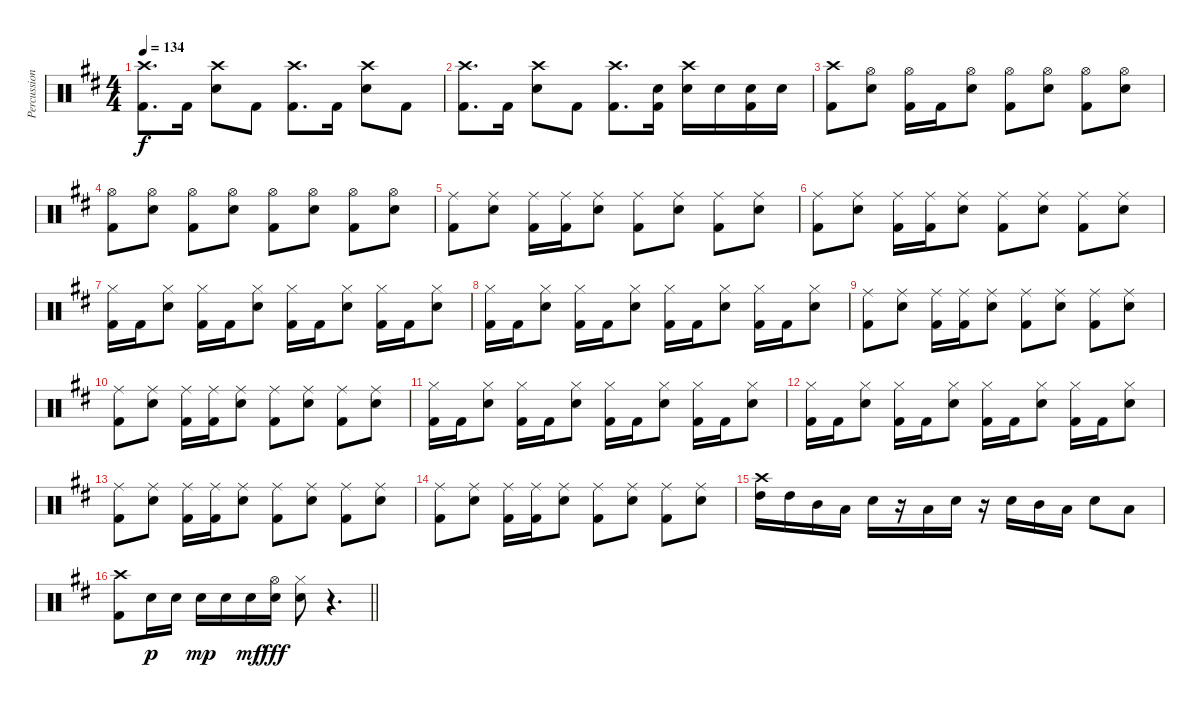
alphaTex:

\track ("Percussion" "Percussion") {instrument percussion}
\staff {score}
\articulation defaults
\ts (4 4)
\tempo 134
\clef neutral
\ks bminor
("Crash high (hit)" "Kick (hit) 2").8{d dy f} "Kick (hit) 2".16 ("Crash high (hit)" "Snare (hit) 2").8 "Kick (hit) 2".8 ("Crash high (hit)" "Kick (hit) 2").8{d} "Kick (hit) 2".16 ("Crash high (hit)" "Snare (hit) 2").8 "Kick (hit) 2".8 |
("Crash high (hit)" "Kick (hit) 2").8{d} "Kick (hit) 2".16 ("Crash high (hit)" "Snare (hit) 2").8 "Kick (hit) 2".8 ("Crash high (hit)" "Kick (hit) 2").8{d} ("Snare (hit) 2" "Kick (hit) 2").16 ("Crash high (hit)" "Snare (hit) 2").16 "Snare (hit) 2".16 ("Snare (hit) 2" "Kick (hit) 2").16 "Snare (hit) 2".16 |
("Crash high (hit)" "Kick (hit) 2").8 ("Hi-Hat (open)" "Snare (hit) 2").8 ("Hi-Hat (open)" "Kick (hit) 2").16 "Kick (hit) 2".16 ("Hi-Hat (open)" "Snare (hit) 2").8 ("Hi-Hat (open)" "Kick (hit) 2").8 ("Hi-Hat (open)" "Snare (hit) 2").8 ("Hi-Hat (open)" "Kick (hit) 2").8 ("Hi-Hat (open)" "Snare (hit) 2").8 |
("Hi-Hat (open)" "Kick (hit) 2").8 ("Hi-Hat (open)" "Snare (hit) 2").8 ("Hi-Hat (open)" "Kick (hit) 2").8 ("Hi-Hat (open)" "Snare (hit) 2").8 ("Hi-Hat (open)" "Kick (hit) 2").8 ("Hi-Hat (open)" "Snare (hit) 2").8 ("Hi-Hat (open)" "Kick (hit) 2").8 ("Hi-Hat (open)" "Snare (hit) 2").8 |
("Ride (middle)" "Kick (hit) 2").8 ("Ride (middle)" "Snare (hit) 2").8 ("Ride (middle)" "Kick (hit) 2").16 ("Ride (middle)" "Kick (hit) 2").16 ("Ride (middle)" "Snare (hit) 2").8 ("Ride (middle)" "Kick (hit) 2").8 ("Ride (middle)" "Snare (hit) 2").8 ("Ride (middle)" "Kick (hit) 2").8 ("Ride (middle)" "Snare (hit) 2").8 |
("Ride (middle)" "Kick (hit) 2").8 ("Ride (middle)" "Snare (hit) 2").8 ("Ride (middle)" "Kick (hit) 2").16 ("Ride (middle)" "Kick (hit) 2").16 ("Ride (middle)" "Snare (hit) 2").8 ("Ride (middle)" "Kick (hit) 2").8 ("Ride (middle)" "Snare (hit) 2").8 ("Ride (middle)" "Kick (hit) 2").8 ("Ride (middle)" "Snare (hit) 2").8 |
("Hi-Hat (closed)" "Kick (hit) 2").16 "Kick (hit) 2".16 ("Snare (hit) 2" "Hi-Hat (closed)").8 ("Hi-Hat (closed)" "Kick (hit) 2").16 "Kick (hit) 2".16 ("Snare (hit) 2" "Hi-Hat (closed)").8 ("Hi-Hat (closed)" "Kick (hit) 2").16 "Kick (hit) 2".16 ("Snare (hit) 2" "Hi-Hat (closed)").8 ("Hi-Hat (closed)" "Kick (hit) 2").16 "Kick (hit) 2".16 ("Snare (hit) 2" "Hi-Hat (closed)").8 |
("Hi-Hat (closed)" "Kick (hit) 2").16 "Kick (hit) 2".16 ("Snare (hit) 2" "Hi-Hat (closed)").8 ("Hi-Hat (closed)" "Kick (hit) 2").16 "Kick (hit) 2".16 ("Snare (hit) 2" "Hi-Hat (closed)").8 ("Hi-Hat (closed)" "Kick (hit) 2").16 "Kick (hit) 2".16 ("Snare (hit) 2" "Hi-Hat (closed)").8 ("Hi-Hat (closed)" "Kick (hit) 2").16 "Kick (hit) 2".16 ("Snare (hit) 2" "Hi-Hat (closed)").8 |
("Ride (middle)" "Kick (hit) 2").8 ("Ride (middle)" "Snare (hit) 2").8 ("Ride (middle)" "Kick (hit) 2").16 ("Ride (middle)" "Kick (hit) 2").16 ("Ride (middle)" "Snare (hit) 2").8 ("Ride (middle)" "Kick (hit) 2").8 ("Ride (middle)" "Snare (hit) 2").8 ("Ride (middle)" "Kick (hit) 2").8 ("Ride (middle)" "Snare (hit) 2").8 |
("Ride (middle)" "Kick (hit) 2").8 ("Ride (middle)" "Snare (hit) 2").8 ("Ride (middle)" "Kick (hit) 2").16 ("Ride (middle)" "Kick (hit) 2").16 ("Ride (middle)" "Snare (hit) 2").8 ("Ride (middle)" "Kick (hit) 2").8 ("Ride (middle)" "Snare (hit) 2").8 ("Ride (middle)" "Kick (hit) 2").8 ("Ride (middle)" "Snare (hit) 2").8 |
("Hi-Hat (closed)" "Kick (hit) 2").16 "Kick (hit) 2".16 ("Snare (hit) 2" "Hi-Hat (closed)").8 ("Hi-Hat (closed)" "Kick (hit) 2").16 "Kick (hit) 2".16 ("Snare (hit) 2" "Hi-Hat (closed)").8 ("Hi-Hat (closed)" "Kick (hit) 2").16 "Kick (hit) 2".16 ("Snare (hit) 2" "Hi-Hat (closed)").8 ("Hi-Hat (closed)" "Kick (hit) 2").16 "Kick (hit) 2".16 ("Snare (hit) 2" "Hi-Hat (closed)").8 |
("Hi-Hat (closed)" "Kick (hit) 2").16 "Kick (hit) 2".16 ("Snare (hit) 2" "Hi-Hat (closed)").8 ("Hi-Hat (closed)" "Kick (hit) 2").16 "Kick (hit) 2".16 ("Snare (hit) 2" "Hi-Hat (closed)").8 ("Hi-Hat (closed)" "Kick (hit) 2").16 "Kick (hit) 2".16 ("Snare (hit) 2" "Hi-Hat (closed)").8 ("Hi-Hat (closed)" "Kick (hit) 2").16 "Kick (hit) 2".16 ("Snare (hit) 2" "Hi-Hat (closed)").8 |
("Ride (middle)" "Kick (hit) 2").8 ("Ride (middle)" "Snare (hit) 2").8 ("Ride (middle)" "Kick (hit) 2").16 ("Ride (middle)" "Kick (hit) 2").16 ("Ride (middle)" "Snare (hit) 2").8 ("Ride (middle)" "Kick (hit) 2").8 ("Ride (middle)" "Snare (hit) 2").8 ("Ride (middle)" "Kick (hit) 2").8 ("Ride (middle)" "Snare (hit) 2").8 |
("Ride (middle)" "Kick (hit) 2").8 ("Ride (middle)" "Snare (hit) 2").8 ("Ride (middle)" "Kick (hit) 2").16 ("Ride (middle)" "Kick (hit) 2").16 ("Ride (middle)" "Snare (hit) 2").8 ("Ride (middle)" "Kick (hit) 2").8 ("Ride (middle)" "Snare (hit) 2").8 ("Ride (middle)" "Kick (hit) 2").8 ("Ride (middle)" "Snare (hit) 2").8 |
("Crash high (hit)" "High Tom (hit)").16 "High Tom (hit)".16 "Mid Tom (hit)".16 "Low Tom (hit)".16 "Snare (hit) 2".16 r.16 "Low Tom (hit)".16 "Snare (hit) 2".16 r.16 "Snare (hit) 2".16 "Mid Tom (hit)".16 "Low Tom (hit)".16 "Snare (hit) 2".8 "Low Tom (hit)".8 |
\barLineRight lightlight
("Crash high (hit)" "Kick (hit) 2").8 "Snare (hit) 2".16{dy p} "Snare (hit) 2".16 "Snare (hit) 2".16{dy mp} "Snare (hit) 2".16 "Snare (hit) 2".16{dy mf} ("Hi-Hat (open)" "Snare (hit) 2").16{dy fff} ("Hi-Hat (closed)" "Snare (hit) 2").8 r.4{d}
